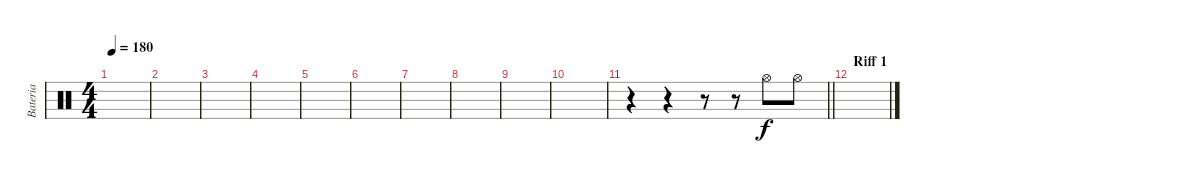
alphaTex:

\track ("Bateria" "Bateria") {instrument percussion}
\staff {score}
\articulation defaults
\ts (4 4)
\tempo 180
\clef neutral
\ks c
|
|
|
|
|
|
|
|
|
|
\barLineRight lightlight
r.4 r.4 r.8 r.8 "Hi-Hat (open)".8 "Hi-Hat (open)".8 |
\section ("" "Riff 1")
